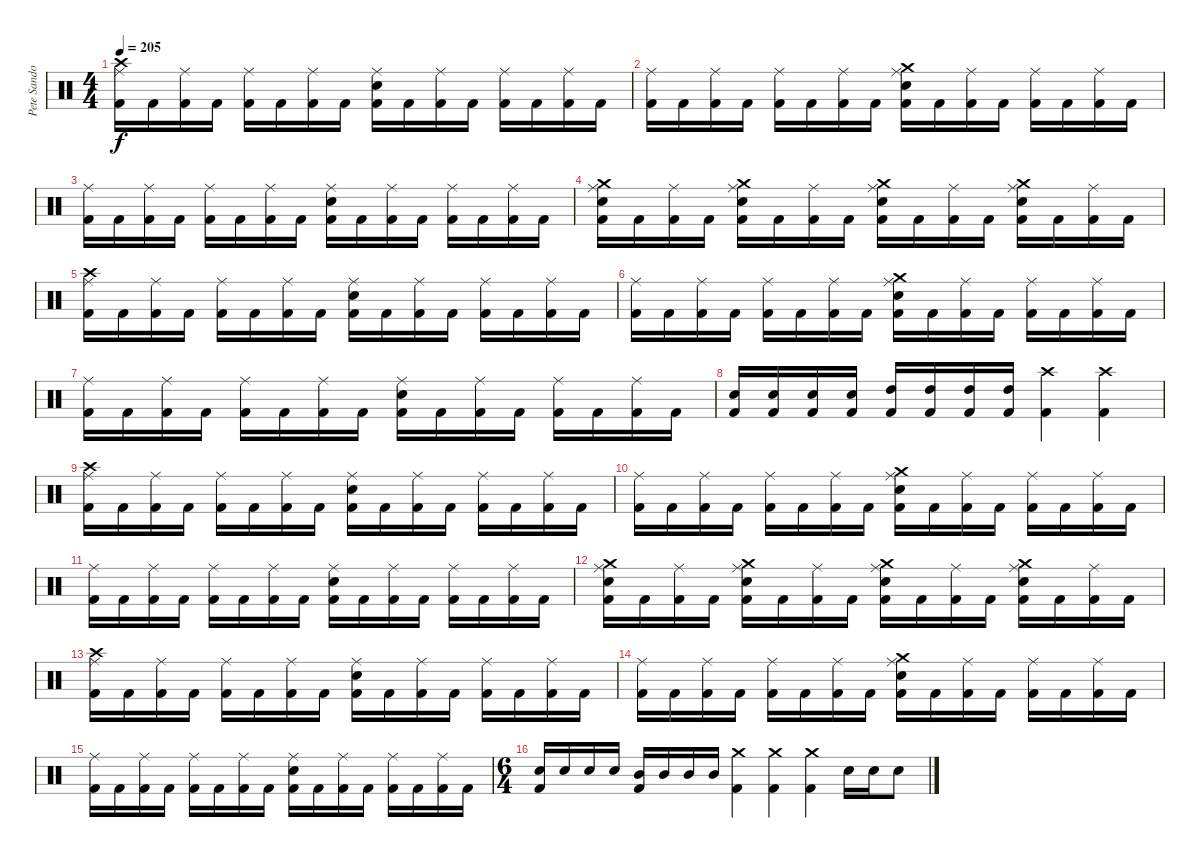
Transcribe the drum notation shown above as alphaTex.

\track ("Pete Sandoval" "Pete Sando") {instrument percussion}
\staff {score}
\articulation defaults
\ts (4 4)
\tempo 205
\clef neutral
\ks c
("Crash high (hit)" "Ride (middle)" "Kick (hit) 2").16{dy f} "Kick (hit) 2".16 ("Ride (middle)" "Kick (hit) 2").16 "Kick (hit) 2".16 ("Ride (middle)" "Kick (hit) 2").16 "Kick (hit) 2".16 ("Ride (middle)" "Kick (hit) 2").16 "Kick (hit) 2".16 ("Electric Snare (hit)" "Ride (middle)" "Kick (hit) 2").16 "Kick (hit) 2".16 ("Ride (middle)" "Kick (hit) 2").16 "Kick (hit) 2".16 ("Ride (middle)" "Kick (hit) 2").16 "Kick (hit) 2".16 ("Ride (middle)" "Kick (hit) 2").16 "Kick (hit) 2".16 |
("Ride (middle)" "Kick (hit) 2").16 "Kick (hit) 2".16 ("Ride (middle)" "Kick (hit) 2").16 "Kick (hit) 2".16 ("Ride (middle)" "Kick (hit) 2").16 "Kick (hit) 2".16 ("Ride (middle)" "Kick (hit) 2").16 "Kick (hit) 2".16 ("Crash medium (hit)" "Electric Snare (hit)" "Ride (middle)" "Kick (hit) 2").16 "Kick (hit) 2".16 ("Ride (middle)" "Kick (hit) 2").16 "Kick (hit) 2".16 ("Ride (middle)" "Kick (hit) 2").16 "Kick (hit) 2".16 ("Ride (middle)" "Kick (hit) 2").16 "Kick (hit) 2".16 |
("Ride (middle)" "Kick (hit) 2").16 "Kick (hit) 2".16 ("Ride (middle)" "Kick (hit) 2").16 "Kick (hit) 2".16 ("Ride (middle)" "Kick (hit) 2").16 "Kick (hit) 2".16 ("Ride (middle)" "Kick (hit) 2").16 "Kick (hit) 2".16 ("Electric Snare (hit)" "Ride (middle)" "Kick (hit) 2").16 "Kick (hit) 2".16 ("Ride (middle)" "Kick (hit) 2").16 "Kick (hit) 2".16 ("Ride (middle)" "Kick (hit) 2").16 "Kick (hit) 2".16 ("Ride (middle)" "Kick (hit) 2").16 "Kick (hit) 2".16 |
("Crash medium (hit)" "Electric Snare (hit)" "Ride (middle)" "Kick (hit) 2").16 "Kick (hit) 2".16 ("Ride (middle)" "Kick (hit) 2").16 "Kick (hit) 2".16 ("Crash medium (hit)" "Electric Snare (hit)" "Ride (middle)" "Kick (hit) 2").16 "Kick (hit) 2".16 ("Ride (middle)" "Kick (hit) 2").16 "Kick (hit) 2".16 ("Crash medium (hit)" "Electric Snare (hit)" "Ride (middle)" "Kick (hit) 2").16 "Kick (hit) 2".16 ("Ride (middle)" "Kick (hit) 2").16 "Kick (hit) 2".16 ("Crash medium (hit)" "Electric Snare (hit)" "Ride (middle)" "Kick (hit) 2").16 "Kick (hit) 2".16 ("Ride (middle)" "Kick (hit) 2").16 "Kick (hit) 2".16 |
("Crash high (hit)" "Ride (middle)" "Kick (hit) 2").16 "Kick (hit) 2".16 ("Ride (middle)" "Kick (hit) 2").16 "Kick (hit) 2".16 ("Ride (middle)" "Kick (hit) 2").16 "Kick (hit) 2".16 ("Ride (middle)" "Kick (hit) 2").16 "Kick (hit) 2".16 ("Electric Snare (hit)" "Ride (middle)" "Kick (hit) 2").16 "Kick (hit) 2".16 ("Ride (middle)" "Kick (hit) 2").16 "Kick (hit) 2".16 ("Ride (middle)" "Kick (hit) 2").16 "Kick (hit) 2".16 ("Ride (middle)" "Kick (hit) 2").16 "Kick (hit) 2".16 |
("Ride (middle)" "Kick (hit) 2").16 "Kick (hit) 2".16 ("Ride (middle)" "Kick (hit) 2").16 "Kick (hit) 2".16 ("Ride (middle)" "Kick (hit) 2").16 "Kick (hit) 2".16 ("Ride (middle)" "Kick (hit) 2").16 "Kick (hit) 2".16 ("Crash medium (hit)" "Electric Snare (hit)" "Ride (middle)" "Kick (hit) 2").16 "Kick (hit) 2".16 ("Ride (middle)" "Kick (hit) 2").16 "Kick (hit) 2".16 ("Ride (middle)" "Kick (hit) 2").16 "Kick (hit) 2".16 ("Ride (middle)" "Kick (hit) 2").16 "Kick (hit) 2".16 |
("Ride (middle)" "Kick (hit) 2").16 "Kick (hit) 2".16 ("Ride (middle)" "Kick (hit) 2").16 "Kick (hit) 2".16 ("Ride (middle)" "Kick (hit) 2").16 "Kick (hit) 2".16 ("Ride (middle)" "Kick (hit) 2").16 "Kick (hit) 2".16 ("Electric Snare (hit)" "Ride (middle)" "Kick (hit) 2").16 "Kick (hit) 2".16 ("Ride (middle)" "Kick (hit) 2").16 "Kick (hit) 2".16 ("Ride (middle)" "Kick (hit) 2").16 "Kick (hit) 2".16 ("Ride (middle)" "Kick (hit) 2").16 "Kick (hit) 2".16 |
("Kick (hit) 2" "Electric Snare (hit)").16 ("Kick (hit) 2" "Electric Snare (hit)").16 ("Kick (hit) 2" "Electric Snare (hit)").16 ("Kick (hit) 2" "Electric Snare (hit)").16 ("Kick (hit) 2" "High Tom (hit)").16 ("Kick (hit) 2" "High Tom (hit)").16 ("Kick (hit) 2" "High Tom (hit)").16 ("Kick (hit) 2" "High Tom (hit)").16 ("Crash high (hit)" "Kick (hit) 2").4 ("Crash high (hit)" "Kick (hit) 2").4 |
("Crash high (hit)" "Ride (middle)" "Kick (hit) 2").16 "Kick (hit) 2".16 ("Ride (middle)" "Kick (hit) 2").16 "Kick (hit) 2".16 ("Ride (middle)" "Kick (hit) 2").16 "Kick (hit) 2".16 ("Ride (middle)" "Kick (hit) 2").16 "Kick (hit) 2".16 ("Electric Snare (hit)" "Ride (middle)" "Kick (hit) 2").16 "Kick (hit) 2".16 ("Ride (middle)" "Kick (hit) 2").16 "Kick (hit) 2".16 ("Ride (middle)" "Kick (hit) 2").16 "Kick (hit) 2".16 ("Ride (middle)" "Kick (hit) 2").16 "Kick (hit) 2".16 |
("Ride (middle)" "Kick (hit) 2").16 "Kick (hit) 2".16 ("Ride (middle)" "Kick (hit) 2").16 "Kick (hit) 2".16 ("Ride (middle)" "Kick (hit) 2").16 "Kick (hit) 2".16 ("Ride (middle)" "Kick (hit) 2").16 "Kick (hit) 2".16 ("Crash medium (hit)" "Electric Snare (hit)" "Ride (middle)" "Kick (hit) 2").16 "Kick (hit) 2".16 ("Ride (middle)" "Kick (hit) 2").16 "Kick (hit) 2".16 ("Ride (middle)" "Kick (hit) 2").16 "Kick (hit) 2".16 ("Ride (middle)" "Kick (hit) 2").16 "Kick (hit) 2".16 |
("Ride (middle)" "Kick (hit) 2").16 "Kick (hit) 2".16 ("Ride (middle)" "Kick (hit) 2").16 "Kick (hit) 2".16 ("Ride (middle)" "Kick (hit) 2").16 "Kick (hit) 2".16 ("Ride (middle)" "Kick (hit) 2").16 "Kick (hit) 2".16 ("Electric Snare (hit)" "Ride (middle)" "Kick (hit) 2").16 "Kick (hit) 2".16 ("Ride (middle)" "Kick (hit) 2").16 "Kick (hit) 2".16 ("Ride (middle)" "Kick (hit) 2").16 "Kick (hit) 2".16 ("Ride (middle)" "Kick (hit) 2").16 "Kick (hit) 2".16 |
("Crash medium (hit)" "Electric Snare (hit)" "Ride (middle)" "Kick (hit) 2").16 "Kick (hit) 2".16 ("Ride (middle)" "Kick (hit) 2").16 "Kick (hit) 2".16 ("Crash medium (hit)" "Electric Snare (hit)" "Ride (middle)" "Kick (hit) 2").16 "Kick (hit) 2".16 ("Ride (middle)" "Kick (hit) 2").16 "Kick (hit) 2".16 ("Crash medium (hit)" "Electric Snare (hit)" "Ride (middle)" "Kick (hit) 2").16 "Kick (hit) 2".16 ("Ride (middle)" "Kick (hit) 2").16 "Kick (hit) 2".16 ("Crash medium (hit)" "Electric Snare (hit)" "Ride (middle)" "Kick (hit) 2").16 "Kick (hit) 2".16 ("Ride (middle)" "Kick (hit) 2").16 "Kick (hit) 2".16 |
("Crash high (hit)" "Ride (middle)" "Kick (hit) 2").16 "Kick (hit) 2".16 ("Ride (middle)" "Kick (hit) 2").16 "Kick (hit) 2".16 ("Ride (middle)" "Kick (hit) 2").16 "Kick (hit) 2".16 ("Ride (middle)" "Kick (hit) 2").16 "Kick (hit) 2".16 ("Electric Snare (hit)" "Ride (middle)" "Kick (hit) 2").16 "Kick (hit) 2".16 ("Ride (middle)" "Kick (hit) 2").16 "Kick (hit) 2".16 ("Ride (middle)" "Kick (hit) 2").16 "Kick (hit) 2".16 ("Ride (middle)" "Kick (hit) 2").16 "Kick (hit) 2".16 |
("Ride (middle)" "Kick (hit) 2").16 "Kick (hit) 2".16 ("Ride (middle)" "Kick (hit) 2").16 "Kick (hit) 2".16 ("Ride (middle)" "Kick (hit) 2").16 "Kick (hit) 2".16 ("Ride (middle)" "Kick (hit) 2").16 "Kick (hit) 2".16 ("Crash medium (hit)" "Electric Snare (hit)" "Ride (middle)" "Kick (hit) 2").16 "Kick (hit) 2".16 ("Ride (middle)" "Kick (hit) 2").16 "Kick (hit) 2".16 ("Ride (middle)" "Kick (hit) 2").16 "Kick (hit) 2".16 ("Ride (middle)" "Kick (hit) 2").16 "Kick (hit) 2".16 |
("Ride (middle)" "Kick (hit) 2").16 "Kick (hit) 2".16 ("Ride (middle)" "Kick (hit) 2").16 "Kick (hit) 2".16 ("Ride (middle)" "Kick (hit) 2").16 "Kick (hit) 2".16 ("Ride (middle)" "Kick (hit) 2").16 "Kick (hit) 2".16 ("Electric Snare (hit)" "Ride (middle)" "Kick (hit) 2").16 "Kick (hit) 2".16 ("Ride (middle)" "Kick (hit) 2").16 "Kick (hit) 2".16 ("Ride (middle)" "Kick (hit) 2").16 "Kick (hit) 2".16 ("Ride (middle)" "Kick (hit) 2").16 "Kick (hit) 2".16 |
\ts (6 4)
("Kick (hit) 2" "Electric Snare (hit)").16 "Electric Snare (hit)".16 "Electric Snare (hit)".16 "Electric Snare (hit)".16 ("Kick (hit) 2" "Mid Tom (hit)").16 "Mid Tom (hit)".16 "Mid Tom (hit)".16 "Mid Tom (hit)".16 ("Crash medium (hit)" "Kick (hit) 2").4 ("Crash medium (hit)" "Kick (hit) 2").4 ("Crash medium (hit)" "Kick (hit) 2").4 "Electric Snare (hit)".16 "Electric Snare (hit)".16 "Electric Snare (hit)".8
